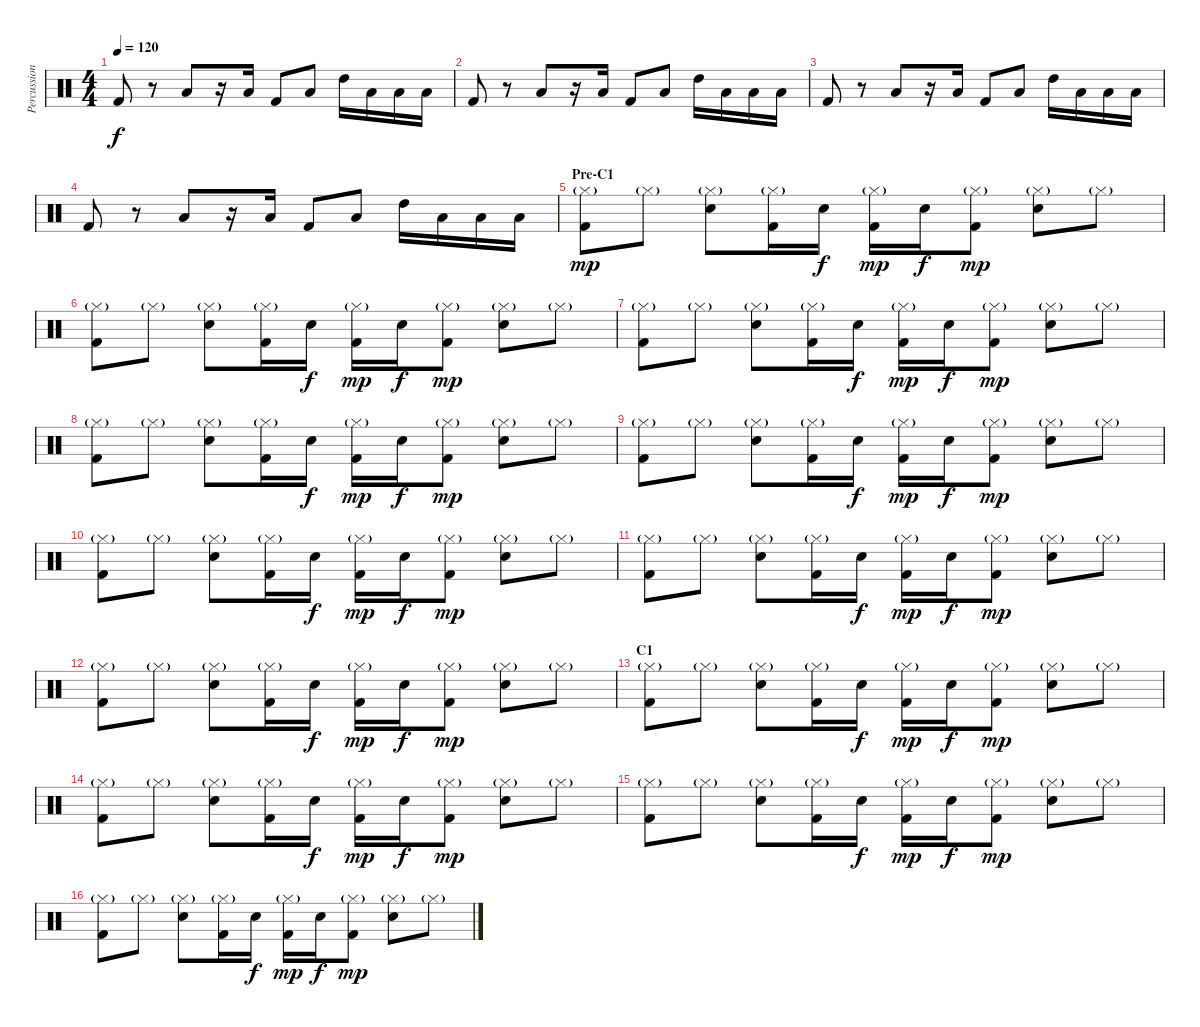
\track ("Percussions" "Percussion") {instrument percussion}
\staff {score}
\articulation defaults
\ts (4 4)
\tempo 120
\clef neutral
\ks c "Kick (hit) 2".8{dy f}
r.8 "Low Floor Tom (hit)".8 r.16 "Low Floor Tom (hit)".16 "Kick (hit) 2".8 "Low Floor Tom (hit)".8 "High Tom (hit)".16 "Low Tom (hit)".16 "Low Floor Tom (hit)".16 "Low Tom (hit)".16 |
"Kick (hit) 2".8 r.8 "Low Floor Tom (hit)".8 r.16 "Low Floor Tom (hit)".16 "Kick (hit) 2".8 "Low Floor Tom (hit)".8 "High Tom (hit)".16 "Low Tom (hit)".16 "Low Floor Tom (hit)".16 "Low Tom (hit)".16 |
"Kick (hit) 2".8 r.8 "Low Floor Tom (hit)".8 r.16 "Low Floor Tom (hit)".16 "Kick (hit) 2".8 "Low Floor Tom (hit)".8 "High Tom (hit)".16 "Low Tom (hit)".16 "Low Floor Tom (hit)".16 "Low Tom (hit)".16 |
"Kick (hit) 2".8 r.8 "Low Floor Tom (hit)".8 r.16 "Low Floor Tom (hit)".16 "Kick (hit) 2".8 "Low Floor Tom (hit)".8 "High Tom (hit)".16 "Low Tom (hit)".16 "Low Floor Tom (hit)".16 "Low Tom (hit)".16 |
\section ("" "Pre-C1")
("Hi-Hat (closed)"{g} "Kick (hit) 2").8{dy mp} "Hi-Hat (closed)"{g}.8 ("Hi-Hat (closed)"{g} "Snare (hit) 2").8 ("Hi-Hat (closed)"{g} "Kick (hit) 2").16 "Snare (hit) 2".16{dy f} ("Hi-Hat (closed)"{g} "Kick (hit) 2").16{dy mp} "Snare (hit) 2".16{dy f} ("Hi-Hat (closed)"{g} "Kick (hit) 2").8{dy mp} ("Hi-Hat (closed)"{g} "Snare (hit) 2").8 "Hi-Hat (closed)"{g}.8 |
("Hi-Hat (closed)"{g} "Kick (hit) 2").8 "Hi-Hat (closed)"{g}.8 ("Hi-Hat (closed)"{g} "Snare (hit) 2").8 ("Hi-Hat (closed)"{g} "Kick (hit) 2").16 "Snare (hit) 2".16{dy f} ("Hi-Hat (closed)"{g} "Kick (hit) 2").16{dy mp} "Snare (hit) 2".16{dy f} ("Hi-Hat (closed)"{g} "Kick (hit) 2").8{dy mp} ("Hi-Hat (closed)"{g} "Snare (hit) 2").8 "Hi-Hat (closed)"{g}.8 |
("Hi-Hat (closed)"{g} "Kick (hit) 2").8 "Hi-Hat (closed)"{g}.8 ("Hi-Hat (closed)"{g} "Snare (hit) 2").8 ("Hi-Hat (closed)"{g} "Kick (hit) 2").16 "Snare (hit) 2".16{dy f} ("Hi-Hat (closed)"{g} "Kick (hit) 2").16{dy mp} "Snare (hit) 2".16{dy f} ("Hi-Hat (closed)"{g} "Kick (hit) 2").8{dy mp} ("Hi-Hat (closed)"{g} "Snare (hit) 2").8 "Hi-Hat (closed)"{g}.8 |
("Hi-Hat (closed)"{g} "Kick (hit) 2").8 "Hi-Hat (closed)"{g}.8 ("Hi-Hat (closed)"{g} "Snare (hit) 2").8 ("Hi-Hat (closed)"{g} "Kick (hit) 2").16 "Snare (hit) 2".16{dy f} ("Hi-Hat (closed)"{g} "Kick (hit) 2").16{dy mp} "Snare (hit) 2".16{dy f} ("Hi-Hat (closed)"{g} "Kick (hit) 2").8{dy mp} ("Hi-Hat (closed)"{g} "Snare (hit) 2").8 "Hi-Hat (closed)"{g}.8 |
("Hi-Hat (closed)"{g} "Kick (hit) 2").8 "Hi-Hat (closed)"{g}.8 ("Hi-Hat (closed)"{g} "Snare (hit) 2").8 ("Hi-Hat (closed)"{g} "Kick (hit) 2").16 "Snare (hit) 2".16{dy f} ("Hi-Hat (closed)"{g} "Kick (hit) 2").16{dy mp} "Snare (hit) 2".16{dy f} ("Hi-Hat (closed)"{g} "Kick (hit) 2").8{dy mp} ("Hi-Hat (closed)"{g} "Snare (hit) 2").8 "Hi-Hat (closed)"{g}.8 |
("Hi-Hat (closed)"{g} "Kick (hit) 2").8 "Hi-Hat (closed)"{g}.8 ("Hi-Hat (closed)"{g} "Snare (hit) 2").8 ("Hi-Hat (closed)"{g} "Kick (hit) 2").16 "Snare (hit) 2".16{dy f} ("Hi-Hat (closed)"{g} "Kick (hit) 2").16{dy mp} "Snare (hit) 2".16{dy f} ("Hi-Hat (closed)"{g} "Kick (hit) 2").8{dy mp} ("Hi-Hat (closed)"{g} "Snare (hit) 2").8 "Hi-Hat (closed)"{g}.8 |
("Hi-Hat (closed)"{g} "Kick (hit) 2").8 "Hi-Hat (closed)"{g}.8 ("Hi-Hat (closed)"{g} "Snare (hit) 2").8 ("Hi-Hat (closed)"{g} "Kick (hit) 2").16 "Snare (hit) 2".16{dy f} ("Hi-Hat (closed)"{g} "Kick (hit) 2").16{dy mp} "Snare (hit) 2".16{dy f} ("Hi-Hat (closed)"{g} "Kick (hit) 2").8{dy mp} ("Hi-Hat (closed)"{g} "Snare (hit) 2").8 "Hi-Hat (closed)"{g}.8 |
("Hi-Hat (closed)"{g} "Kick (hit) 2").8 "Hi-Hat (closed)"{g}.8 ("Hi-Hat (closed)"{g} "Snare (hit) 2").8 ("Hi-Hat (closed)"{g} "Kick (hit) 2").16 "Snare (hit) 2".16{dy f} ("Hi-Hat (closed)"{g} "Kick (hit) 2").16{dy mp} "Snare (hit) 2".16{dy f} ("Hi-Hat (closed)"{g} "Kick (hit) 2").8{dy mp} ("Hi-Hat (closed)"{g} "Snare (hit) 2").8 "Hi-Hat (closed)"{g}.8 |
\section ("" "C1")
("Hi-Hat (closed)"{g} "Kick (hit) 2").8 "Hi-Hat (closed)"{g}.8 ("Hi-Hat (closed)"{g} "Snare (hit) 2").8 ("Hi-Hat (closed)"{g} "Kick (hit) 2").16 "Snare (hit) 2".16{dy f} ("Hi-Hat (closed)"{g} "Kick (hit) 2").16{dy mp} "Snare (hit) 2".16{dy f} ("Hi-Hat (closed)"{g} "Kick (hit) 2").8{dy mp} ("Hi-Hat (closed)"{g} "Snare (hit) 2").8 "Hi-Hat (closed)"{g}.8 |
("Hi-Hat (closed)"{g} "Kick (hit) 2").8 "Hi-Hat (closed)"{g}.8 ("Hi-Hat (closed)"{g} "Snare (hit) 2").8 ("Hi-Hat (closed)"{g} "Kick (hit) 2").16 "Snare (hit) 2".16{dy f} ("Hi-Hat (closed)"{g} "Kick (hit) 2").16{dy mp} "Snare (hit) 2".16{dy f} ("Hi-Hat (closed)"{g} "Kick (hit) 2").8{dy mp} ("Hi-Hat (closed)"{g} "Snare (hit) 2").8 "Hi-Hat (closed)"{g}.8 |
("Hi-Hat (closed)"{g} "Kick (hit) 2").8 "Hi-Hat (closed)"{g}.8 ("Hi-Hat (closed)"{g} "Snare (hit) 2").8 ("Hi-Hat (closed)"{g} "Kick (hit) 2").16 "Snare (hit) 2".16{dy f} ("Hi-Hat (closed)"{g} "Kick (hit) 2").16{dy mp} "Snare (hit) 2".16{dy f} ("Hi-Hat (closed)"{g} "Kick (hit) 2").8{dy mp} ("Hi-Hat (closed)"{g} "Snare (hit) 2").8 "Hi-Hat (closed)"{g}.8 |
("Hi-Hat (closed)"{g} "Kick (hit) 2").8 "Hi-Hat (closed)"{g}.8 ("Hi-Hat (closed)"{g} "Snare (hit) 2").8 ("Hi-Hat (closed)"{g} "Kick (hit) 2").16 "Snare (hit) 2".16{dy f} ("Hi-Hat (closed)"{g} "Kick (hit) 2").16{dy mp} "Snare (hit) 2".16{dy f} ("Hi-Hat (closed)"{g} "Kick (hit) 2").8{dy mp} ("Hi-Hat (closed)"{g} "Snare (hit) 2").8 "Hi-Hat (closed)"{g}.8
